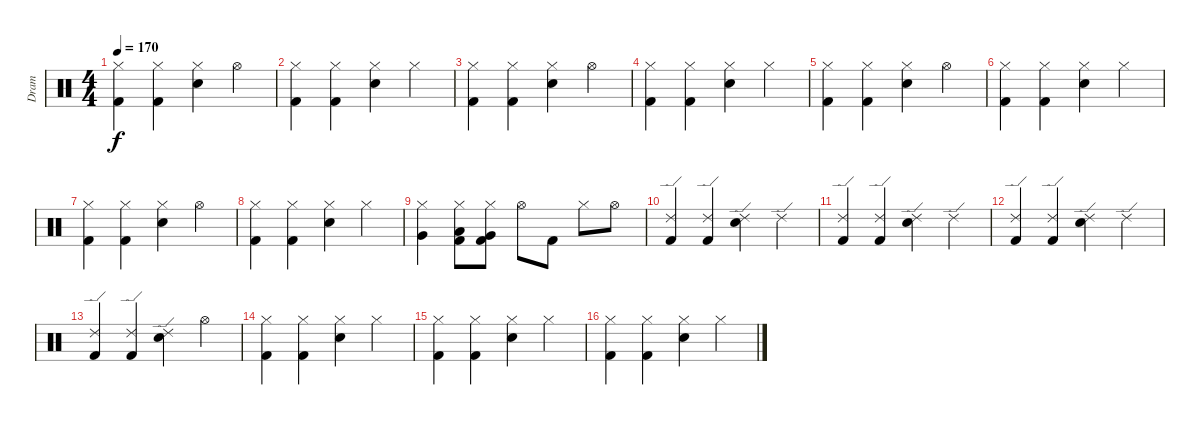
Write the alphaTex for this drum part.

\track ("Dram" "Dram") {instrument percussion}
\staff {score}
\articulation defaults
\ts (4 4)
\tempo 170
\clef neutral
\ks c
("Hi-Hat (closed)" "Kick (hit) 2").4{dy f} ("Hi-Hat (closed)" "Kick (hit) 2").4 ("Hi-Hat (closed)" "Electric Snare (hit)").4 "Hi-Hat (open)".4 |
("Hi-Hat (closed)" "Kick (hit) 2").4 ("Hi-Hat (closed)" "Kick (hit) 2").4 ("Hi-Hat (closed)" "Electric Snare (hit)").4 "Hi-Hat (closed)".4 |
("Hi-Hat (closed)" "Kick (hit) 2").4 ("Hi-Hat (closed)" "Kick (hit) 2").4 ("Hi-Hat (closed)" "Electric Snare (hit)").4 "Hi-Hat (open)".4 |
("Hi-Hat (closed)" "Kick (hit) 2").4 ("Hi-Hat (closed)" "Kick (hit) 2").4 ("Hi-Hat (closed)" "Electric Snare (hit)").4 "Hi-Hat (closed)".4 |
("Hi-Hat (closed)" "Kick (hit) 2").4 ("Hi-Hat (closed)" "Kick (hit) 2").4 ("Hi-Hat (closed)" "Electric Snare (hit)").4 "Hi-Hat (open)".4 |
("Hi-Hat (closed)" "Kick (hit) 2").4 ("Hi-Hat (closed)" "Kick (hit) 2").4 ("Hi-Hat (closed)" "Electric Snare (hit)").4 "Hi-Hat (closed)".4 |
("Hi-Hat (closed)" "Kick (hit) 2").4 ("Hi-Hat (closed)" "Kick (hit) 2").4 ("Hi-Hat (closed)" "Electric Snare (hit)").4 "Hi-Hat (open)".4 |
("Hi-Hat (closed)" "Kick (hit) 2").4 ("Hi-Hat (closed)" "Kick (hit) 2").4 ("Hi-Hat (closed)" "Electric Snare (hit)").4 "Hi-Hat (closed)".4 |
("Hi-Hat (closed)" "Very Low Tom (hit)").4 ("Hi-Hat (closed)" "Low Tom (hit)" "Kick (hit) 2").8 ("Hi-Hat (closed)" "Very Low Tom (hit)" "Kick (hit) 2").8 "Hi-Hat (open)".8 "Kick (hit) 2".8 "Hi-Hat (closed)".8 "Hi-Hat (open)".8 |
("Ride (edge) 2" "Kick (hit) 2").4 ("Ride (edge) 2" "Kick (hit) 2").4 ("Ride (edge) 2" "Electric Snare (hit)").4 "Ride (edge) 2".4 |
("Ride (edge) 2" "Kick (hit) 2").4 ("Ride (edge) 2" "Kick (hit) 2").4 ("Ride (edge) 2" "Electric Snare (hit)").4 "Ride (edge) 2".4 |
("Ride (edge) 2" "Kick (hit) 2").4 ("Ride (edge) 2" "Kick (hit) 2").4 ("Ride (edge) 2" "Electric Snare (hit)").4 "Ride (edge) 2".4 |
("Ride (edge) 2" "Kick (hit) 2").4 ("Ride (edge) 2" "Kick (hit) 2").4 ("Ride (edge) 2" "Electric Snare (hit)").4 "Hi-Hat (open)".4 |
("Hi-Hat (closed)" "Kick (hit) 2").4 ("Hi-Hat (closed)" "Kick (hit) 2").4 ("Hi-Hat (closed)" "Electric Snare (hit)").4 "Hi-Hat (closed)".4 |
("Hi-Hat (closed)" "Kick (hit) 2").4 ("Hi-Hat (closed)" "Kick (hit) 2").4 ("Hi-Hat (closed)" "Electric Snare (hit)").4 "Hi-Hat (closed)".4 |
("Hi-Hat (closed)" "Kick (hit) 2").4 ("Hi-Hat (closed)" "Kick (hit) 2").4 ("Hi-Hat (closed)" "Electric Snare (hit)").4 "Hi-Hat (closed)".4
